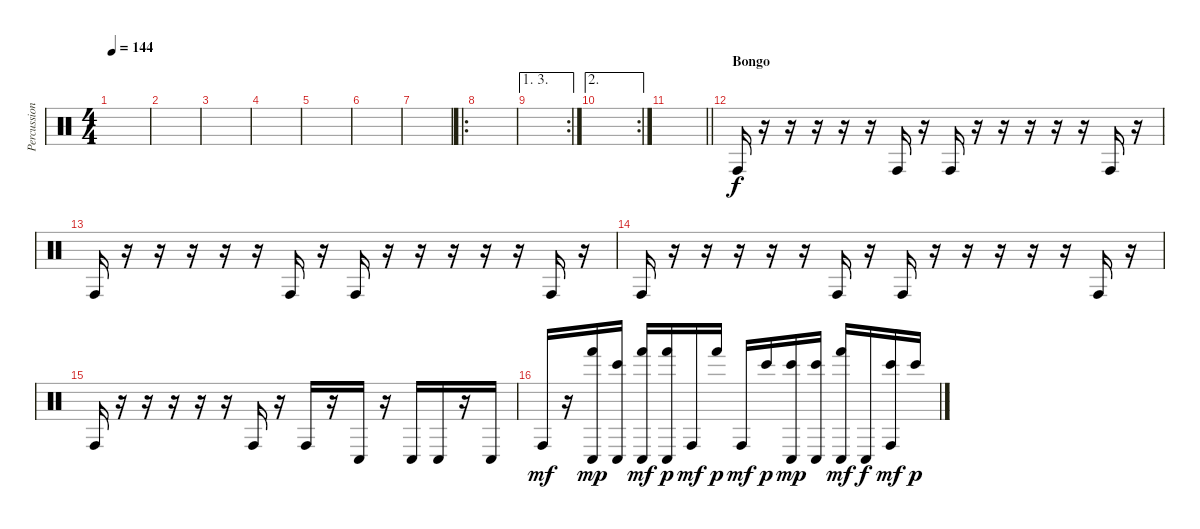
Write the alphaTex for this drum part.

\track ("Percussions" "Percussion") {instrument percussion}
\staff {score}
\articulation defaults
\ts (4 4)
\tempo 144
\clef neutral
\ks c
|
|
|
|
|
|
|
\ro
|
\ae (1 3)
\rc 2
|
\ae 2
\rc 2
|
\barLineRight lightlight
|
\section ("" "Bongo")
"Conga high (hit)".16 r.16 r.16 r.16 r.16 r.16 "Conga high (hit)".16 r.16 "Conga high (hit)".16 r.16 r.16 r.16 r.16 r.16 "Conga high (hit)".16 r.16 |
"Conga high (hit)".16 r.16 r.16 r.16 r.16 r.16 "Conga high (hit)".16 r.16 "Conga high (hit)".16 r.16 r.16 r.16 r.16 r.16 "Conga high (hit)".16 r.16 |
"Conga high (hit)".16 r.16 r.16 r.16 r.16 r.16 "Conga high (hit)".16 r.16 "Conga high (hit)".16 r.16 r.16 r.16 r.16 r.16 "Conga high (hit)".16 r.16 |
"Conga high (hit)".16 r.16 r.16 r.16 r.16 r.16 "Conga high (hit)".16 r.16 "Conga high (hit)".16 r.16 "Conga low (hit)".16{dy f} r.16 "Conga low (hit)".16 "Conga low (hit)".16 r.16 "Conga low (hit)".16 |
"Conga high (hit)".16{dy mf} r.16 ("Hand (hit)" "Conga low (hit)").16{dy mp} ("Bongo High (hit)" "Conga low (hit)").16 ("Hand (hit)" "Conga low (hit)").16{dy mf} ("Hand (hit)" "Conga low (hit)").16{dy p} "Conga high (hit)".16{dy mf} "Hand (hit)".16{dy p} "Conga high (hit)".16{dy mf} "Bongo High (hit)".16{dy p} ("Bongo High (hit)" "Conga low (hit)").16{dy mp} ("Bongo High (hit)" "Conga low (hit)").16 ("Hand (hit)" "Conga low (hit)").16{dy mf} "Conga low (hit)".16{dy f} ("Bongo High (hit)" "Conga high (hit)").16{dy mf} "Bongo High (hit)".16{dy p}
